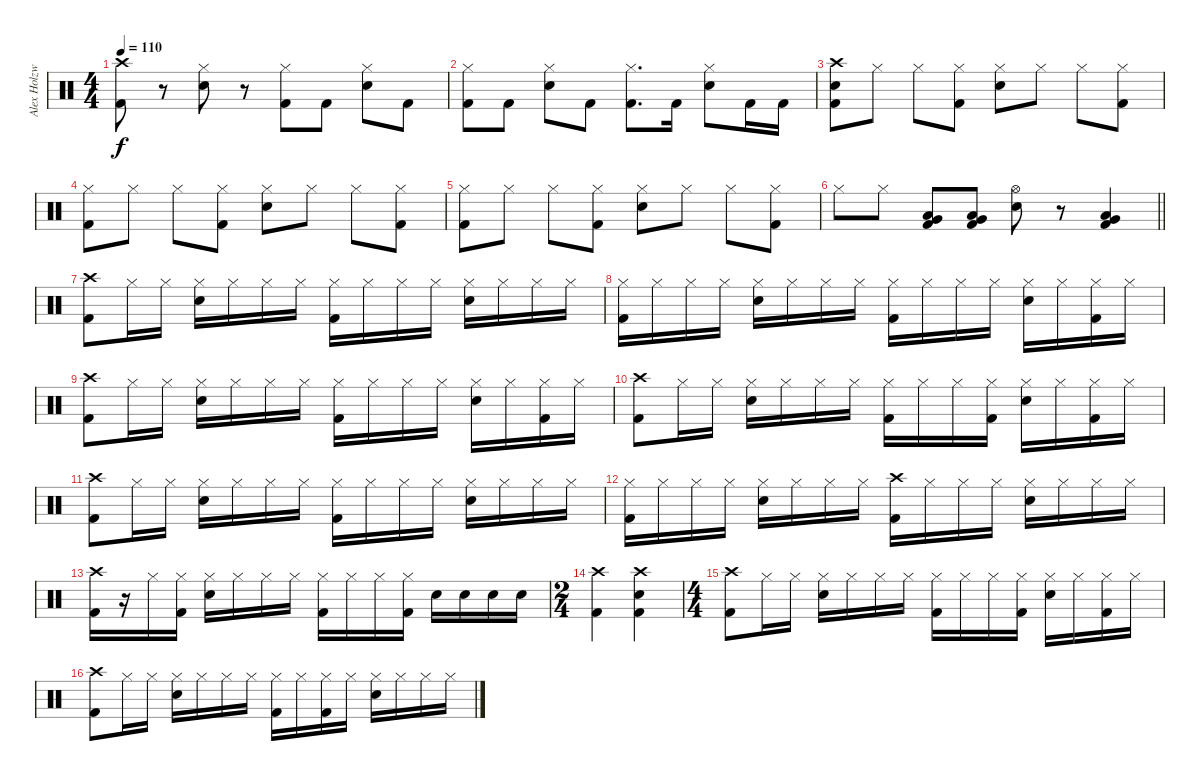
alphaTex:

\track ("Alex Holzwarth (Drums)" "Alex Holzw") {instrument percussion}
\staff {score}
\articulation defaults
\ts (4 4)
\tempo 110
\clef neutral
\ks c
("Crash high (hit)" "Kick (hit) 2").8{dy f} r.8 ("Hi-Hat (closed)" "Electric Snare (hit)").8 r.8 ("Hi-Hat (closed)" "Kick (hit) 2").8 "Kick (hit) 2".8 ("Hi-Hat (closed)" "Electric Snare (hit)").8 "Kick (hit) 2".8 |
("Hi-Hat (closed)" "Kick (hit) 2").8 "Kick (hit) 2".8 ("Hi-Hat (closed)" "Electric Snare (hit)").8 "Kick (hit) 2".8 ("Hi-Hat (closed)" "Kick (hit) 2").8{d} "Kick (hit) 2".16 ("Hi-Hat (closed)" "Electric Snare (hit)").8 "Kick (hit) 2".16 "Kick (hit) 2".16 |
("Crash high (hit)" "Electric Snare (hit)" "Kick (hit) 2").8 "Hi-Hat (closed)".8 "Hi-Hat (closed)".8 ("Hi-Hat (closed)" "Kick (hit) 2").8 ("Hi-Hat (closed)" "Electric Snare (hit)").8 "Hi-Hat (closed)".8 "Hi-Hat (closed)".8 ("Hi-Hat (closed)" "Kick (hit) 2").8 |
("Hi-Hat (closed)" "Kick (hit) 2").8 "Hi-Hat (closed)".8 "Hi-Hat (closed)".8 ("Hi-Hat (closed)" "Kick (hit) 2").8 ("Hi-Hat (closed)" "Electric Snare (hit)").8 "Hi-Hat (closed)".8 "Hi-Hat (closed)".8 ("Hi-Hat (closed)" "Kick (hit) 2").8 |
("Hi-Hat (closed)" "Kick (hit) 2").8 "Hi-Hat (closed)".8 "Hi-Hat (closed)".8 ("Hi-Hat (closed)" "Kick (hit) 2").8 ("Hi-Hat (closed)" "Electric Snare (hit)").8 "Hi-Hat (closed)".8 "Hi-Hat (closed)".8 ("Hi-Hat (closed)" "Kick (hit) 2").8 |
\barLineRight lightlight "Hi-Hat (closed)".8 "Hi-Hat (closed)".8
("Low Tom (hit)" "Very Low Tom (hit)" "Kick (hit) 2").8 ("Low Tom (hit)" "Very Low Tom (hit)" "Kick (hit) 2").8 ("Hi-Hat (open)" "Electric Snare (hit)").8 r.8 ("Very Low Tom (hit)" "Low Tom (hit)" "Kick (hit) 2").4 |
("Crash high (hit)" "Kick (hit) 2").8 "Hi-Hat (closed)".16 "Hi-Hat (closed)".16 ("Hi-Hat (closed)" "Electric Snare (hit)").16 "Hi-Hat (closed)".16 "Hi-Hat (closed)".16 "Hi-Hat (closed)".16 ("Hi-Hat (closed)" "Kick (hit) 2").16 "Hi-Hat (closed)".16 "Hi-Hat (closed)".16 "Hi-Hat (closed)".16 ("Hi-Hat (closed)" "Electric Snare (hit)").16 "Hi-Hat (closed)".16 "Hi-Hat (closed)".16 "Hi-Hat (closed)".16 |
("Hi-Hat (closed)" "Kick (hit) 2").16 "Hi-Hat (closed)".16 "Hi-Hat (closed)".16 "Hi-Hat (closed)".16 ("Hi-Hat (closed)" "Electric Snare (hit)").16 "Hi-Hat (closed)".16 "Hi-Hat (closed)".16 "Hi-Hat (closed)".16 ("Hi-Hat (closed)" "Kick (hit) 2").16 "Hi-Hat (closed)".16 "Hi-Hat (closed)".16 "Hi-Hat (closed)".16 ("Hi-Hat (closed)" "Electric Snare (hit)").16 "Hi-Hat (closed)".16 ("Hi-Hat (closed)" "Kick (hit) 2").16 "Hi-Hat (closed)".16 |
("Crash high (hit)" "Kick (hit) 2").8 "Hi-Hat (closed)".16 "Hi-Hat (closed)".16 ("Hi-Hat (closed)" "Electric Snare (hit)").16 "Hi-Hat (closed)".16 "Hi-Hat (closed)".16 "Hi-Hat (closed)".16 ("Hi-Hat (closed)" "Kick (hit) 2").16 "Hi-Hat (closed)".16 "Hi-Hat (closed)".16 "Hi-Hat (closed)".16 ("Hi-Hat (closed)" "Electric Snare (hit)").16 "Hi-Hat (closed)".16 ("Hi-Hat (closed)" "Kick (hit) 2").16 "Hi-Hat (closed)".16 |
("Crash high (hit)" "Kick (hit) 2").8 "Hi-Hat (closed)".16 "Hi-Hat (closed)".16 ("Hi-Hat (closed)" "Electric Snare (hit)").16 "Hi-Hat (closed)".16 "Hi-Hat (closed)".16 "Hi-Hat (closed)".16 ("Hi-Hat (closed)" "Kick (hit) 2").16 "Hi-Hat (closed)".16 "Hi-Hat (closed)".16 ("Hi-Hat (closed)" "Kick (hit) 2").16 ("Hi-Hat (closed)" "Electric Snare (hit)").16 "Hi-Hat (closed)".16 ("Hi-Hat (closed)" "Kick (hit) 2").16 "Hi-Hat (closed)".16 |
("Crash high (hit)" "Kick (hit) 2").8 "Hi-Hat (closed)".16 "Hi-Hat (closed)".16 ("Hi-Hat (closed)" "Electric Snare (hit)").16 "Hi-Hat (closed)".16 "Hi-Hat (closed)".16 "Hi-Hat (closed)".16 ("Hi-Hat (closed)" "Kick (hit) 2").16 "Hi-Hat (closed)".16 "Hi-Hat (closed)".16 "Hi-Hat (closed)".16 ("Hi-Hat (closed)" "Electric Snare (hit)").16 "Hi-Hat (closed)".16 "Hi-Hat (closed)".16 "Hi-Hat (closed)".16 |
("Hi-Hat (closed)" "Kick (hit) 2").16 "Hi-Hat (closed)".16 "Hi-Hat (closed)".16 "Hi-Hat (closed)".16 ("Hi-Hat (closed)" "Electric Snare (hit)").16 "Hi-Hat (closed)".16 "Hi-Hat (closed)".16 "Hi-Hat (closed)".16 ("Crash high (hit)" "Kick (hit) 2").16 "Hi-Hat (closed)".16 "Hi-Hat (closed)".16 "Hi-Hat (closed)".16 ("Hi-Hat (closed)" "Electric Snare (hit)").16 "Hi-Hat (closed)".16 "Hi-Hat (closed)".16 "Hi-Hat (closed)".16 |
("Crash high (hit)" "Kick (hit) 2").16 r.16 "Hi-Hat (closed)".16 ("Hi-Hat (closed)" "Kick (hit) 2").16 ("Hi-Hat (closed)" "Electric Snare (hit)").16 "Hi-Hat (closed)".16 "Hi-Hat (closed)".16 "Hi-Hat (closed)".16 ("Hi-Hat (closed)" "Kick (hit) 2").16 "Hi-Hat (closed)".16 "Hi-Hat (closed)".16 ("Hi-Hat (closed)" "Kick (hit) 2").16 "Electric Snare (hit)".16 "Electric Snare (hit)".16 "Electric Snare (hit)".16 "Electric Snare (hit)".16 |
\ts (2 4)
("Crash high (hit)" "Kick (hit) 2").4 ("Crash high (hit)" "Electric Snare (hit)" "Kick (hit) 2").4 |
\ts (4 4)
("Crash high (hit)" "Kick (hit) 2").8 "Hi-Hat (closed)".16 "Hi-Hat (closed)".16 ("Hi-Hat (closed)" "Electric Snare (hit)").16 "Hi-Hat (closed)".16 "Hi-Hat (closed)".16 "Hi-Hat (closed)".16 ("Hi-Hat (closed)" "Kick (hit) 2").16 "Hi-Hat (closed)".16 "Hi-Hat (closed)".16 ("Hi-Hat (closed)" "Kick (hit) 2").16 ("Hi-Hat (closed)" "Electric Snare (hit)").16 "Hi-Hat (closed)".16 ("Hi-Hat (closed)" "Kick (hit) 2").16 "Hi-Hat (closed)".16 |
("Crash high (hit)" "Kick (hit) 2").8 "Hi-Hat (closed)".16 "Hi-Hat (closed)".16 ("Hi-Hat (closed)" "Electric Snare (hit)").16 "Hi-Hat (closed)".16 "Hi-Hat (closed)".16 "Hi-Hat (closed)".16 ("Hi-Hat (closed)" "Kick (hit) 2").16 "Hi-Hat (closed)".16 ("Hi-Hat (closed)" "Kick (hit) 2").16 "Hi-Hat (closed)".16 ("Hi-Hat (closed)" "Electric Snare (hit)").16 "Hi-Hat (closed)".16 "Hi-Hat (closed)".16 "Hi-Hat (closed)".16
